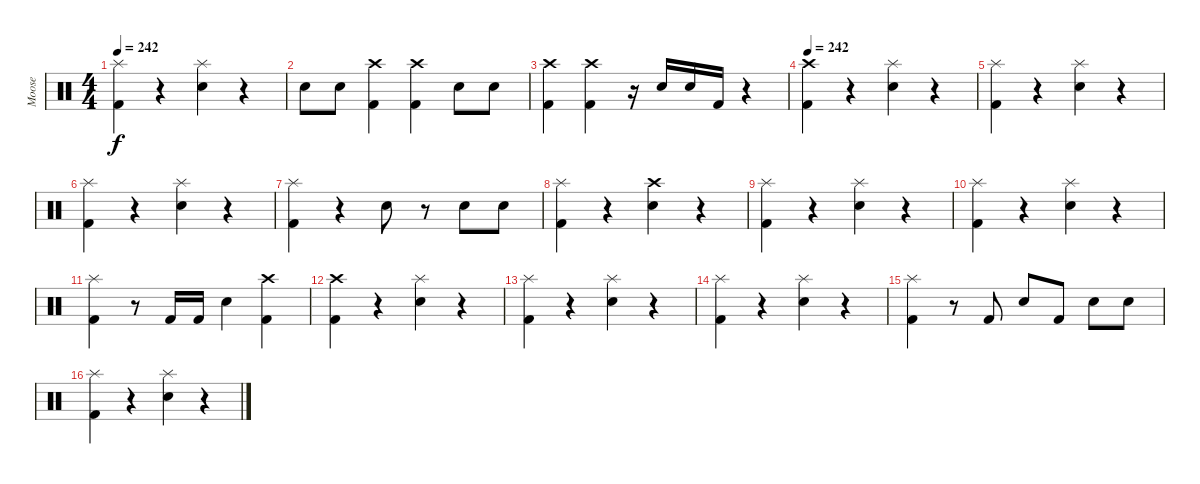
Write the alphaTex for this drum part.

\track ("Moose" "Moose") {instrument percussion}
\staff {score}
\articulation defaults
\ts (4 4)
\tempo 242
\clef neutral
\ks c
("Splash (hit)" "Kick (hit) 2").4{dy f} r.4 ("Splash (hit)" "Electric Snare (hit)").4 r.4 |
"Electric Snare (hit)".8 "Electric Snare (hit)".8 ("Crash high (hit)" "Kick (hit) 2").4 ("Crash high (hit)" "Kick (hit) 2").4 "Electric Snare (hit)".8 "Electric Snare (hit)".8 |
("Crash high (hit)" "Kick (hit) 2").4 ("Crash high (hit)" "Kick (hit) 2").4 r.16 "Electric Snare (hit)".16 "Electric Snare (hit)".16 "Kick (hit) 2".16 r.4 |
\tempo 242
("Crash high (hit)" "Kick (hit) 2").4 r.4 ("Splash (hit)" "Electric Snare (hit)").4 r.4 |
("Splash (hit)" "Kick (hit) 2").4 r.4 ("Splash (hit)" "Electric Snare (hit)").4 r.4 |
("Splash (hit)" "Kick (hit) 2").4 r.4 ("Splash (hit)" "Electric Snare (hit)").4 r.4 |
("Splash (hit)" "Kick (hit) 2").4 r.4 "Electric Snare (hit)".8 r.8 "Electric Snare (hit)".8 "Electric Snare (hit)".8 |
("Splash (hit)" "Kick (hit) 2").4 r.4 ("Crash high (hit)" "Electric Snare (hit)").4 r.4 |
("Splash (hit)" "Kick (hit) 2").4 r.4 ("Splash (hit)" "Electric Snare (hit)").4 r.4 |
("Splash (hit)" "Kick (hit) 2").4 r.4 ("Splash (hit)" "Electric Snare (hit)").4 r.4 |
("Splash (hit)" "Kick (hit) 2").4 r.8 "Kick (hit) 2".16 "Kick (hit) 2".16 "Electric Snare (hit)".4 ("Crash high (hit)" "Kick (hit) 2").4 |
("Crash high (hit)" "Kick (hit) 2").4 r.4 ("Splash (hit)" "Electric Snare (hit)").4 r.4 |
("Splash (hit)" "Kick (hit) 2").4 r.4 ("Splash (hit)" "Electric Snare (hit)").4 r.4 |
("Splash (hit)" "Kick (hit) 2").4 r.4 ("Splash (hit)" "Electric Snare (hit)").4 r.4 |
("Splash (hit)" "Kick (hit) 2").4 r.8 "Kick (hit) 2".8 "Electric Snare (hit)".8 "Kick (hit) 2".8 "Electric Snare (hit)".8 "Electric Snare (hit)".8 |
("Splash (hit)" "Kick (hit) 2").4 r.4 ("Splash (hit)" "Electric Snare (hit)").4 r.4
